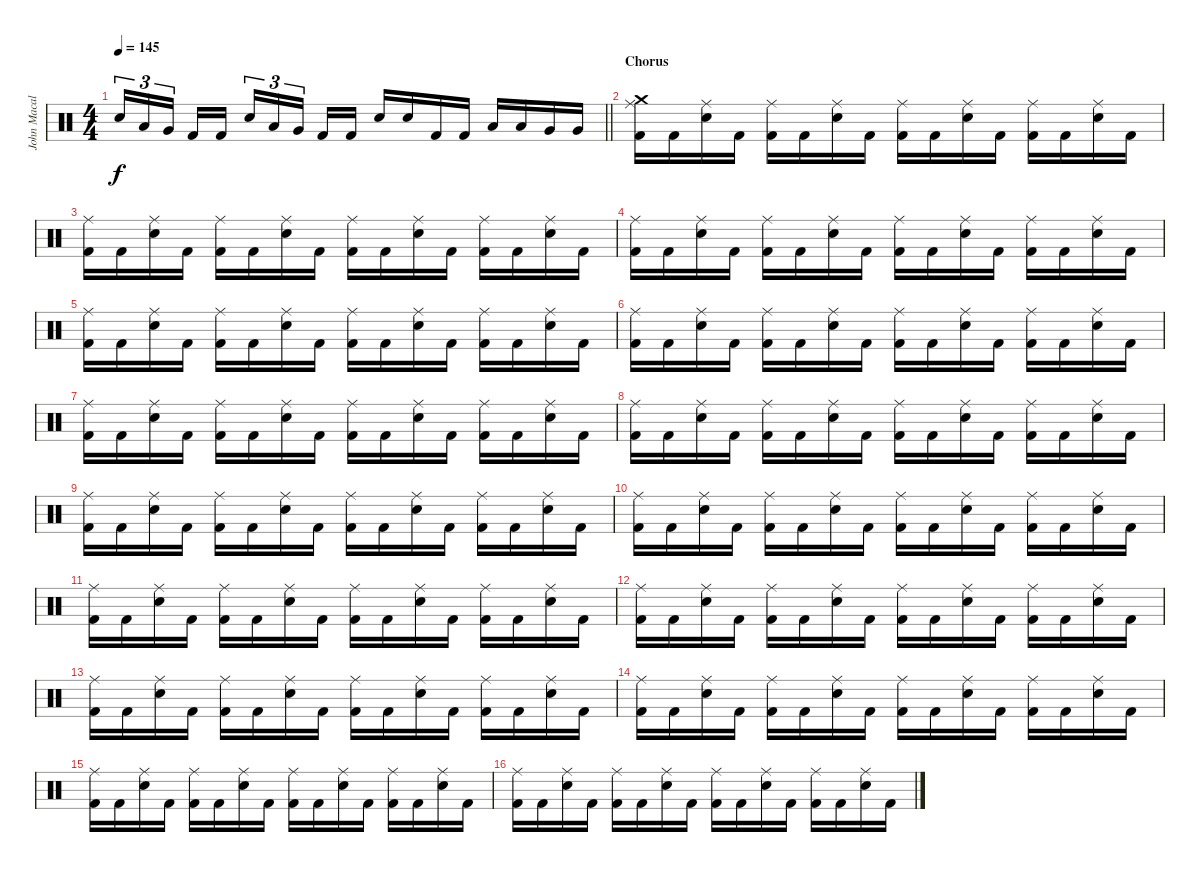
\track ("John Macaluso" "John Macal") {instrument percussion}
\staff {score}
\articulation defaults
\ts (4 4)
\tempo 145
\clef neutral
\barLineRight lightlight
\ks c "Snare (hit) 2".16{tu (3 2) dy f} "Low Tom (hit)".16{tu (3 2)} "Very Low Tom (hit)".16{tu (3 2) beam splitsecondary} "Kick (hit) 2".16 "Kick (hit) 2".16 "Snare (hit) 2".16{tu (3 2)} "Low Tom (hit)".16{tu (3 2)} "Very Low Tom (hit)".16{tu (3 2) beam splitsecondary} "Kick (hit) 2".16 "Kick (hit) 2".16 "Snare (hit) 2".16 "Snare (hit) 2".16 "Kick (hit) 2".16 "Kick (hit) 2".16 "Low Tom (hit)".16 "Low Tom (hit)".16 "Very Low Tom (hit)".16 "Very Low Tom (hit)".16
|
\section ("" "Chorus")
("Crash medium (hit)" "Ride (middle)" "Kick (hit) 2").16 "Kick (hit) 2".16 ("Ride (middle)" "Snare (hit) 2").16 "Kick (hit) 2".16 ("Ride (middle)" "Kick (hit) 2").16 "Kick (hit) 2".16 ("Ride (middle)" "Snare (hit) 2").16 "Kick (hit) 2".16 ("Ride (middle)" "Kick (hit) 2").16 "Kick (hit) 2".16 ("Ride (middle)" "Snare (hit) 2").16 "Kick (hit) 2".16 ("Ride (middle)" "Kick (hit) 2").16 "Kick (hit) 2".16 ("Ride (middle)" "Snare (hit) 2").16 "Kick (hit) 2".16 |
("Ride (middle)" "Kick (hit) 2").16 "Kick (hit) 2".16 ("Ride (middle)" "Snare (hit) 2").16 "Kick (hit) 2".16 ("Ride (middle)" "Kick (hit) 2").16 "Kick (hit) 2".16 ("Ride (middle)" "Snare (hit) 2").16 "Kick (hit) 2".16 ("Ride (middle)" "Kick (hit) 2").16 "Kick (hit) 2".16 ("Ride (middle)" "Snare (hit) 2").16 "Kick (hit) 2".16 ("Ride (middle)" "Kick (hit) 2").16 "Kick (hit) 2".16 ("Ride (middle)" "Snare (hit) 2").16 "Kick (hit) 2".16 |
("Ride (middle)" "Kick (hit) 2").16 "Kick (hit) 2".16 ("Ride (middle)" "Snare (hit) 2").16 "Kick (hit) 2".16 ("Ride (middle)" "Kick (hit) 2").16 "Kick (hit) 2".16 ("Ride (middle)" "Snare (hit) 2").16 "Kick (hit) 2".16 ("Ride (middle)" "Kick (hit) 2").16 "Kick (hit) 2".16 ("Ride (middle)" "Snare (hit) 2").16 "Kick (hit) 2".16 ("Ride (middle)" "Kick (hit) 2").16 "Kick (hit) 2".16 ("Ride (middle)" "Snare (hit) 2").16 "Kick (hit) 2".16 |
("Ride (middle)" "Kick (hit) 2").16 "Kick (hit) 2".16 ("Ride (middle)" "Snare (hit) 2").16 "Kick (hit) 2".16 ("Ride (middle)" "Kick (hit) 2").16 "Kick (hit) 2".16 ("Ride (middle)" "Snare (hit) 2").16 "Kick (hit) 2".16 ("Ride (middle)" "Kick (hit) 2").16 "Kick (hit) 2".16 ("Ride (middle)" "Snare (hit) 2").16 "Kick (hit) 2".16 ("Ride (middle)" "Kick (hit) 2").16 "Kick (hit) 2".16 ("Ride (middle)" "Snare (hit) 2").16 "Kick (hit) 2".16 |
("Ride (middle)" "Kick (hit) 2").16 "Kick (hit) 2".16 ("Ride (middle)" "Snare (hit) 2").16 "Kick (hit) 2".16 ("Ride (middle)" "Kick (hit) 2").16 "Kick (hit) 2".16 ("Ride (middle)" "Snare (hit) 2").16 "Kick (hit) 2".16 ("Ride (middle)" "Kick (hit) 2").16 "Kick (hit) 2".16 ("Ride (middle)" "Snare (hit) 2").16 "Kick (hit) 2".16 ("Ride (middle)" "Kick (hit) 2").16 "Kick (hit) 2".16 ("Ride (middle)" "Snare (hit) 2").16 "Kick (hit) 2".16 |
("Ride (middle)" "Kick (hit) 2").16 "Kick (hit) 2".16 ("Ride (middle)" "Snare (hit) 2").16 "Kick (hit) 2".16 ("Ride (middle)" "Kick (hit) 2").16 "Kick (hit) 2".16 ("Ride (middle)" "Snare (hit) 2").16 "Kick (hit) 2".16 ("Ride (middle)" "Kick (hit) 2").16 "Kick (hit) 2".16 ("Ride (middle)" "Snare (hit) 2").16 "Kick (hit) 2".16 ("Ride (middle)" "Kick (hit) 2").16 "Kick (hit) 2".16 ("Ride (middle)" "Snare (hit) 2").16 "Kick (hit) 2".16 |
("Ride (middle)" "Kick (hit) 2").16 "Kick (hit) 2".16 ("Ride (middle)" "Snare (hit) 2").16 "Kick (hit) 2".16 ("Ride (middle)" "Kick (hit) 2").16 "Kick (hit) 2".16 ("Ride (middle)" "Snare (hit) 2").16 "Kick (hit) 2".16 ("Ride (middle)" "Kick (hit) 2").16 "Kick (hit) 2".16 ("Ride (middle)" "Snare (hit) 2").16 "Kick (hit) 2".16 ("Ride (middle)" "Kick (hit) 2").16 "Kick (hit) 2".16 ("Ride (middle)" "Snare (hit) 2").16 "Kick (hit) 2".16 |
("Ride (middle)" "Kick (hit) 2").16 "Kick (hit) 2".16 ("Ride (middle)" "Snare (hit) 2").16 "Kick (hit) 2".16 ("Ride (middle)" "Kick (hit) 2").16 "Kick (hit) 2".16 ("Ride (middle)" "Snare (hit) 2").16 "Kick (hit) 2".16 ("Ride (middle)" "Kick (hit) 2").16 "Kick (hit) 2".16 ("Ride (middle)" "Snare (hit) 2").16 "Kick (hit) 2".16 ("Ride (middle)" "Kick (hit) 2").16 "Kick (hit) 2".16 ("Ride (middle)" "Snare (hit) 2").16 "Kick (hit) 2".16 |
("Ride (middle)" "Kick (hit) 2").16 "Kick (hit) 2".16 ("Ride (middle)" "Snare (hit) 2").16 "Kick (hit) 2".16 ("Ride (middle)" "Kick (hit) 2").16 "Kick (hit) 2".16 ("Ride (middle)" "Snare (hit) 2").16 "Kick (hit) 2".16 ("Ride (middle)" "Kick (hit) 2").16 "Kick (hit) 2".16 ("Ride (middle)" "Snare (hit) 2").16 "Kick (hit) 2".16 ("Ride (middle)" "Kick (hit) 2").16 "Kick (hit) 2".16 ("Ride (middle)" "Snare (hit) 2").16 "Kick (hit) 2".16 |
("Ride (middle)" "Kick (hit) 2").16 "Kick (hit) 2".16 ("Ride (middle)" "Snare (hit) 2").16 "Kick (hit) 2".16 ("Ride (middle)" "Kick (hit) 2").16 "Kick (hit) 2".16 ("Ride (middle)" "Snare (hit) 2").16 "Kick (hit) 2".16 ("Ride (middle)" "Kick (hit) 2").16 "Kick (hit) 2".16 ("Ride (middle)" "Snare (hit) 2").16 "Kick (hit) 2".16 ("Ride (middle)" "Kick (hit) 2").16 "Kick (hit) 2".16 ("Ride (middle)" "Snare (hit) 2").16 "Kick (hit) 2".16 |
("Ride (middle)" "Kick (hit) 2").16 "Kick (hit) 2".16 ("Ride (middle)" "Snare (hit) 2").16 "Kick (hit) 2".16 ("Ride (middle)" "Kick (hit) 2").16 "Kick (hit) 2".16 ("Ride (middle)" "Snare (hit) 2").16 "Kick (hit) 2".16 ("Ride (middle)" "Kick (hit) 2").16 "Kick (hit) 2".16 ("Ride (middle)" "Snare (hit) 2").16 "Kick (hit) 2".16 ("Ride (middle)" "Kick (hit) 2").16 "Kick (hit) 2".16 ("Ride (middle)" "Snare (hit) 2").16 "Kick (hit) 2".16 |
("Ride (middle)" "Kick (hit) 2").16 "Kick (hit) 2".16 ("Ride (middle)" "Snare (hit) 2").16 "Kick (hit) 2".16 ("Ride (middle)" "Kick (hit) 2").16 "Kick (hit) 2".16 ("Ride (middle)" "Snare (hit) 2").16 "Kick (hit) 2".16 ("Ride (middle)" "Kick (hit) 2").16 "Kick (hit) 2".16 ("Ride (middle)" "Snare (hit) 2").16 "Kick (hit) 2".16 ("Ride (middle)" "Kick (hit) 2").16 "Kick (hit) 2".16 ("Ride (middle)" "Snare (hit) 2").16 "Kick (hit) 2".16 |
("Ride (middle)" "Kick (hit) 2").16 "Kick (hit) 2".16 ("Ride (middle)" "Snare (hit) 2").16 "Kick (hit) 2".16 ("Ride (middle)" "Kick (hit) 2").16 "Kick (hit) 2".16 ("Ride (middle)" "Snare (hit) 2").16 "Kick (hit) 2".16 ("Ride (middle)" "Kick (hit) 2").16 "Kick (hit) 2".16 ("Ride (middle)" "Snare (hit) 2").16 "Kick (hit) 2".16 ("Ride (middle)" "Kick (hit) 2").16 "Kick (hit) 2".16 ("Ride (middle)" "Snare (hit) 2").16 "Kick (hit) 2".16 |
("Ride (middle)" "Kick (hit) 2").16 "Kick (hit) 2".16 ("Ride (middle)" "Snare (hit) 2").16 "Kick (hit) 2".16 ("Ride (middle)" "Kick (hit) 2").16 "Kick (hit) 2".16 ("Ride (middle)" "Snare (hit) 2").16 "Kick (hit) 2".16 ("Ride (middle)" "Kick (hit) 2").16 "Kick (hit) 2".16 ("Ride (middle)" "Snare (hit) 2").16 "Kick (hit) 2".16 ("Ride (middle)" "Kick (hit) 2").16 "Kick (hit) 2".16 ("Ride (middle)" "Snare (hit) 2").16 "Kick (hit) 2".16 |
("Ride (middle)" "Kick (hit) 2").16 "Kick (hit) 2".16 ("Ride (middle)" "Snare (hit) 2").16 "Kick (hit) 2".16 ("Ride (middle)" "Kick (hit) 2").16 "Kick (hit) 2".16 ("Ride (middle)" "Snare (hit) 2").16 "Kick (hit) 2".16 ("Ride (middle)" "Kick (hit) 2").16 "Kick (hit) 2".16 ("Ride (middle)" "Snare (hit) 2").16 "Kick (hit) 2".16 ("Ride (middle)" "Kick (hit) 2").16 "Kick (hit) 2".16 ("Ride (middle)" "Snare (hit) 2").16 "Kick (hit) 2".16
